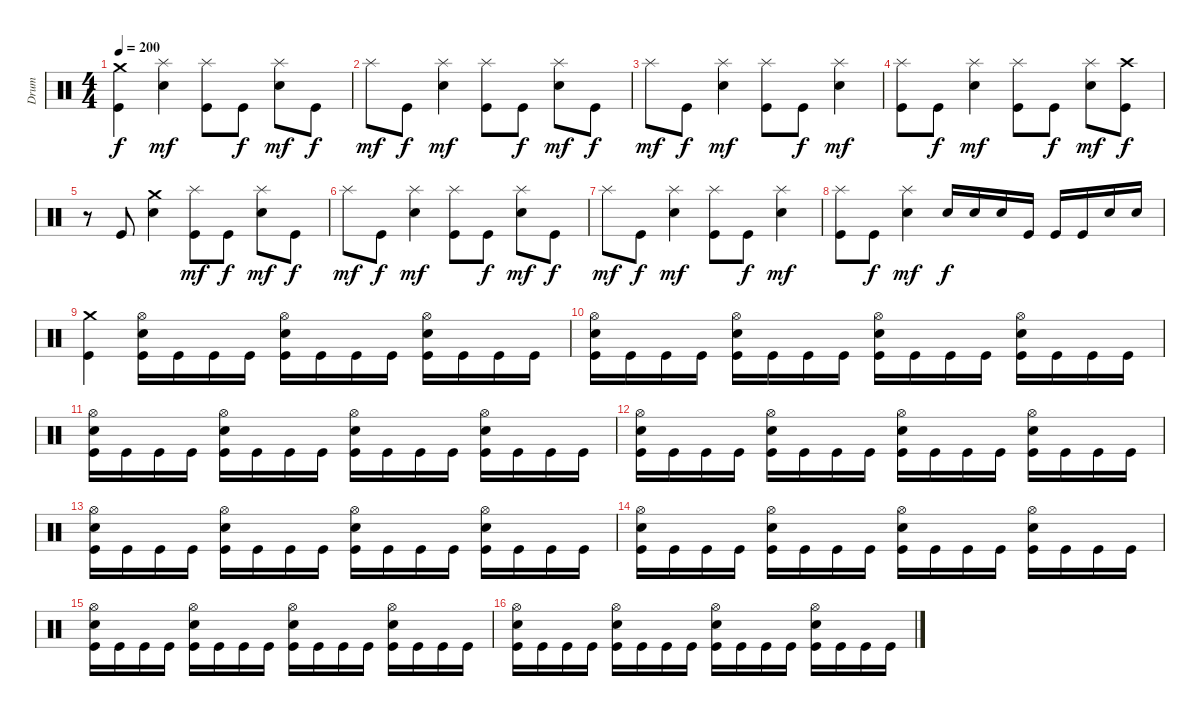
\track ("Drum" "Drum") {instrument percussion}
\staff {score}
\articulation defaults
\ts (4 4)
\tempo 200
\clef neutral
\ks c
("Kick (hit)" "Crash medium (hit)").4{dy f} ("Electric Snare (hit)" "Splash (hit)").4{dy mf} ("Kick (hit)" "Splash (hit)").8 "Kick (hit)".8{dy f} ("Electric Snare (hit)" "Splash (hit)").8{dy mf} "Kick (hit)".8{dy f} |
"Splash (hit)".8{dy mf} "Kick (hit)".8{dy f} ("Electric Snare (hit)" "Splash (hit)").4{dy mf} ("Kick (hit)" "Splash (hit)").8 "Kick (hit)".8{dy f} ("Electric Snare (hit)" "Splash (hit)").8{dy mf} "Kick (hit)".8{dy f} |
"Splash (hit)".8{dy mf} "Kick (hit)".8{dy f} ("Electric Snare (hit)" "Splash (hit)").4{dy mf} ("Kick (hit)" "Splash (hit)").8 "Kick (hit)".8{dy f} ("Electric Snare (hit)" "Splash (hit)").4{dy mf} |
("Kick (hit)" "Splash (hit)").8 "Kick (hit)".8{dy f} ("Electric Snare (hit)" "Splash (hit)").4{dy mf} ("Kick (hit)" "Splash (hit)").8 "Kick (hit)".8{dy f} ("Electric Snare (hit)" "Splash (hit)").8{dy mf} ("Kick (hit)" "Crash high (hit)").8{dy f} |
r.8 "Kick (hit)".8 ("Electric Snare (hit)" "Crash medium (hit)").4 ("Kick (hit)" "Splash (hit)").8{dy mf} "Kick (hit)".8{dy f} ("Electric Snare (hit)" "Splash (hit)").8{dy mf} "Kick (hit)".8{dy f} |
"Splash (hit)".8{dy mf} "Kick (hit)".8{dy f} ("Electric Snare (hit)" "Splash (hit)").4{dy mf} ("Kick (hit)" "Splash (hit)").8 "Kick (hit)".8{dy f} ("Electric Snare (hit)" "Splash (hit)").8{dy mf} "Kick (hit)".8{dy f} |
"Splash (hit)".8{dy mf} "Kick (hit)".8{dy f} ("Electric Snare (hit)" "Splash (hit)").4{dy mf} ("Kick (hit)" "Splash (hit)").8 "Kick (hit)".8{dy f} ("Electric Snare (hit)" "Splash (hit)").4{dy mf} |
("Kick (hit)" "Splash (hit)").8 "Kick (hit)".8{dy f} ("Electric Snare (hit)" "Splash (hit)").4{dy mf} "Electric Snare (hit)".16{dy f} "Electric Snare (hit)".16 "Electric Snare (hit)".16 "Kick (hit)".16 "Kick (hit)".16 "Kick (hit)".16 "Electric Snare (hit)".16 "Electric Snare (hit)".16 |
("Kick (hit)" "Crash medium (hit)").4 ("Kick (hit)" "Electric Snare (hit)" "Hi-Hat (open)").16 "Kick (hit)".16 "Kick (hit)".16 "Kick (hit)".16 ("Kick (hit)" "Electric Snare (hit)" "Hi-Hat (open)").16 "Kick (hit)".16 "Kick (hit)".16 "Kick (hit)".16 ("Kick (hit)" "Electric Snare (hit)" "Hi-Hat (open)").16 "Kick (hit)".16 "Kick (hit)".16 "Kick (hit)".16 |
("Kick (hit)" "Electric Snare (hit)" "Hi-Hat (open)").16 "Kick (hit)".16 "Kick (hit)".16 "Kick (hit)".16 ("Kick (hit)" "Electric Snare (hit)" "Hi-Hat (open)").16 "Kick (hit)".16 "Kick (hit)".16 "Kick (hit)".16 ("Kick (hit)" "Electric Snare (hit)" "Hi-Hat (open)").16 "Kick (hit)".16 "Kick (hit)".16 "Kick (hit)".16 ("Kick (hit)" "Electric Snare (hit)" "Hi-Hat (open)").16 "Kick (hit)".16 "Kick (hit)".16 "Kick (hit)".16 |
("Kick (hit)" "Electric Snare (hit)" "Hi-Hat (open)").16 "Kick (hit)".16 "Kick (hit)".16 "Kick (hit)".16 ("Kick (hit)" "Electric Snare (hit)" "Hi-Hat (open)").16 "Kick (hit)".16 "Kick (hit)".16 "Kick (hit)".16 ("Kick (hit)" "Electric Snare (hit)" "Hi-Hat (open)").16 "Kick (hit)".16 "Kick (hit)".16 "Kick (hit)".16 ("Kick (hit)" "Electric Snare (hit)" "Hi-Hat (open)").16 "Kick (hit)".16 "Kick (hit)".16 "Kick (hit)".16 |
("Kick (hit)" "Electric Snare (hit)" "Hi-Hat (open)").16 "Kick (hit)".16 "Kick (hit)".16 "Kick (hit)".16 ("Kick (hit)" "Electric Snare (hit)" "Hi-Hat (open)").16 "Kick (hit)".16 "Kick (hit)".16 "Kick (hit)".16 ("Kick (hit)" "Electric Snare (hit)" "Hi-Hat (open)").16 "Kick (hit)".16 "Kick (hit)".16 "Kick (hit)".16 ("Kick (hit)" "Electric Snare (hit)" "Hi-Hat (open)").16 "Kick (hit)".16 "Kick (hit)".16 "Kick (hit)".16 |
("Kick (hit)" "Electric Snare (hit)" "Hi-Hat (open)").16 "Kick (hit)".16 "Kick (hit)".16 "Kick (hit)".16 ("Kick (hit)" "Electric Snare (hit)" "Hi-Hat (open)").16 "Kick (hit)".16 "Kick (hit)".16 "Kick (hit)".16 ("Kick (hit)" "Electric Snare (hit)" "Hi-Hat (open)").16 "Kick (hit)".16 "Kick (hit)".16 "Kick (hit)".16 ("Kick (hit)" "Electric Snare (hit)" "Hi-Hat (open)").16 "Kick (hit)".16 "Kick (hit)".16 "Kick (hit)".16 |
("Kick (hit)" "Electric Snare (hit)" "Hi-Hat (open)").16 "Kick (hit)".16 "Kick (hit)".16 "Kick (hit)".16 ("Kick (hit)" "Electric Snare (hit)" "Hi-Hat (open)").16 "Kick (hit)".16 "Kick (hit)".16 "Kick (hit)".16 ("Kick (hit)" "Electric Snare (hit)" "Hi-Hat (open)").16 "Kick (hit)".16 "Kick (hit)".16 "Kick (hit)".16 ("Kick (hit)" "Electric Snare (hit)" "Hi-Hat (open)").16 "Kick (hit)".16 "Kick (hit)".16 "Kick (hit)".16 |
("Kick (hit)" "Electric Snare (hit)" "Hi-Hat (open)").16 "Kick (hit)".16 "Kick (hit)".16 "Kick (hit)".16 ("Kick (hit)" "Electric Snare (hit)" "Hi-Hat (open)").16 "Kick (hit)".16 "Kick (hit)".16 "Kick (hit)".16 ("Kick (hit)" "Electric Snare (hit)" "Hi-Hat (open)").16 "Kick (hit)".16 "Kick (hit)".16 "Kick (hit)".16 ("Kick (hit)" "Electric Snare (hit)" "Hi-Hat (open)").16 "Kick (hit)".16 "Kick (hit)".16 "Kick (hit)".16 |
("Kick (hit)" "Electric Snare (hit)" "Hi-Hat (open)").16 "Kick (hit)".16 "Kick (hit)".16 "Kick (hit)".16 ("Kick (hit)" "Electric Snare (hit)" "Hi-Hat (open)").16 "Kick (hit)".16 "Kick (hit)".16 "Kick (hit)".16 ("Kick (hit)" "Electric Snare (hit)" "Hi-Hat (open)").16 "Kick (hit)".16 "Kick (hit)".16 "Kick (hit)".16 ("Kick (hit)" "Electric Snare (hit)" "Hi-Hat (open)").16 "Kick (hit)".16 "Kick (hit)".16 "Kick (hit)".16
